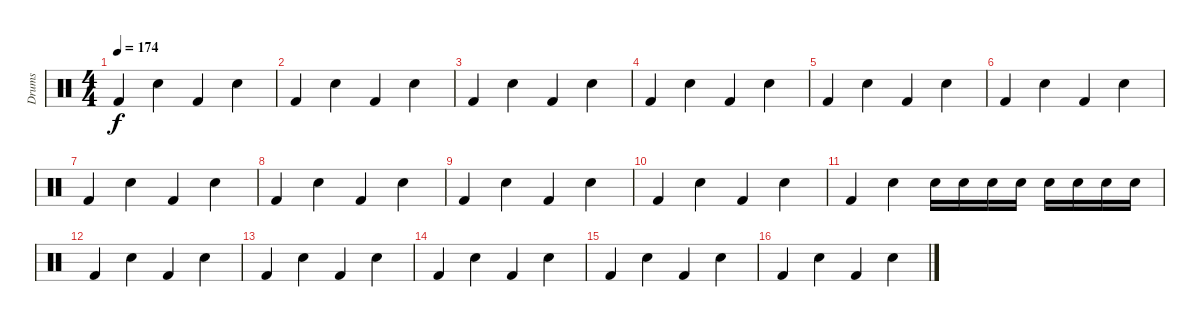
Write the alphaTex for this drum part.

\track ("Drums" "Drums") {instrument percussion}
\staff {score}
\articulation defaults
\ts (4 4)
\tempo 174
\clef neutral
\ks c "Kick (hit) 2".4{dy f} "Electric Snare (hit)".4 "Kick (hit) 2".4 "Electric Snare (hit)".4
|
"Kick (hit) 2".4 "Electric Snare (hit)".4 "Kick (hit) 2".4 "Electric Snare (hit)".4 |
"Kick (hit) 2".4 "Electric Snare (hit)".4 "Kick (hit) 2".4 "Electric Snare (hit)".4 |
"Kick (hit) 2".4 "Electric Snare (hit)".4 "Kick (hit) 2".4 "Electric Snare (hit)".4 |
"Kick (hit) 2".4 "Electric Snare (hit)".4 "Kick (hit) 2".4 "Electric Snare (hit)".4 |
"Kick (hit) 2".4 "Electric Snare (hit)".4 "Kick (hit) 2".4 "Electric Snare (hit)".4 |
"Kick (hit) 2".4 "Electric Snare (hit)".4 "Kick (hit) 2".4 "Electric Snare (hit)".4 |
"Kick (hit) 2".4 "Electric Snare (hit)".4 "Kick (hit) 2".4 "Electric Snare (hit)".4 |
"Kick (hit) 2".4 "Electric Snare (hit)".4 "Kick (hit) 2".4 "Electric Snare (hit)".4 |
"Kick (hit) 2".4 "Electric Snare (hit)".4 "Kick (hit) 2".4 "Electric Snare (hit)".4 |
"Kick (hit) 2".4 "Electric Snare (hit)".4 "Electric Snare (hit)".16 "Electric Snare (hit)".16 "Electric Snare (hit)".16 "Electric Snare (hit)".16 "Electric Snare (hit)".16 "Electric Snare (hit)".16 "Electric Snare (hit)".16 "Electric Snare (hit)".16 |
"Kick (hit) 2".4 "Electric Snare (hit)".4 "Kick (hit) 2".4 "Electric Snare (hit)".4 |
"Kick (hit) 2".4 "Electric Snare (hit)".4 "Kick (hit) 2".4 "Electric Snare (hit)".4 |
"Kick (hit) 2".4 "Electric Snare (hit)".4 "Kick (hit) 2".4 "Electric Snare (hit)".4 |
"Kick (hit) 2".4 "Electric Snare (hit)".4 "Kick (hit) 2".4 "Electric Snare (hit)".4 |
"Kick (hit) 2".4 "Electric Snare (hit)".4 "Kick (hit) 2".4 "Electric Snare (hit)".4
